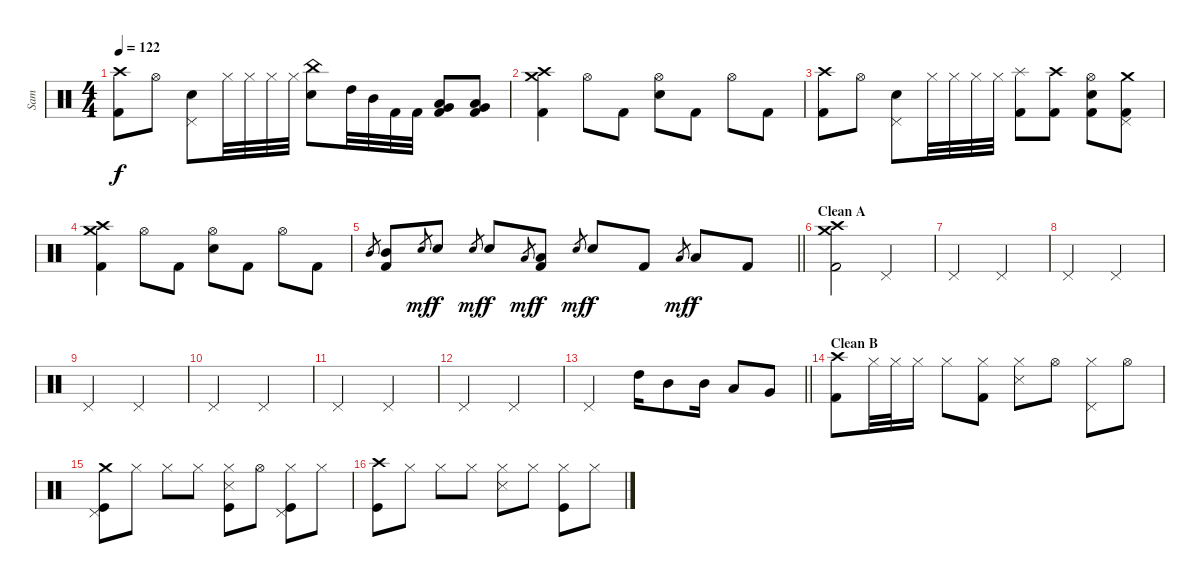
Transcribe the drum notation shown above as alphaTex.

\track ("Sam" "Sam") {solo instrument percussion}
\staff {score}
\articulation defaults
\ts (4 4)
\tempo 122
\clef neutral
\ks c
("Crash high (hit)" "Kick (hit) 2").8{dy f} "Hi-Hat (open)".8 ("Electric Snare (hit)" "Pedal Hi-Hat (hit)").8 "Hi-Hat (closed)".32 "Hi-Hat (closed)".32 "Hi-Hat (closed)".32 "Hi-Hat (closed)".32 ("China (hit)" "Electric Snare (hit)").8 "High Tom (hit)".32 "Mid Tom (hit)".32 "Kick (hit) 2".32 "Kick (hit) 2".32 ("Very Low Tom (hit)" "Low Floor Tom (hit)" "Kick (hit) 2").8 ("Very Low Tom (hit)" "Low Floor Tom (hit)" "Kick (hit) 2").8 |
("Crash medium (hit)" "Crash high (hit)" "Kick (hit) 2").4 "Hi-Hat (open)".8 "Kick (hit) 2".8 ("Hi-Hat (open)" "Electric Snare (hit)").8 "Kick (hit) 2".8 "Hi-Hat (open)".8 "Kick (hit) 2".8 |
("Crash high (hit)" "Kick (hit) 2").8 "Hi-Hat (open)".8 ("Electric Snare (hit)" "Pedal Hi-Hat (hit)").8 "Hi-Hat (closed)".32 "Hi-Hat (closed)".32 "Hi-Hat (closed)".32 "Hi-Hat (closed)".32 ("Splash (hit)" "Kick (hit) 2").8 ("Crash high (hit)" "Kick (hit) 2").8 ("Hi-Hat (open)" "Electric Snare (hit)" "Kick (hit) 2").8 ("Crash medium (hit)" "Pedal Hi-Hat (hit)" "Kick (hit) 2").8 |
("Crash medium (hit)" "Crash high (hit)" "Kick (hit) 2").4 "Hi-Hat (open)".8 "Kick (hit) 2".8 ("Hi-Hat (open)" "Electric Snare (hit)").8 "Kick (hit) 2".8 "Hi-Hat (open)".8 "Kick (hit) 2".8 |
\barLineRight lightlight "Mid Tom (hit)".8{gr}
("Mid Tom (hit)" "Kick (hit) 2").8 "Electric Snare (hit)".8{gr dy mf} "Electric Snare (hit)".8{dy f} "Electric Snare (hit)".8{gr dy mf} "Electric Snare (hit)".8{dy f} "Low Tom (hit)".8{gr dy mf} ("Low Tom (hit)" "Kick (hit) 2").8{dy f} "Electric Snare (hit)".8{gr dy mf} "Electric Snare (hit)".8{dy f} "Kick (hit) 2".8 "Low Tom (hit)".8{gr dy mf} "Low Tom (hit)".8{dy f} "Kick (hit) 2".8 |
\section ("" "Clean A")
("Crash high (hit)" "Crash medium (hit)" "Kick (hit) 2").2 "Pedal Hi-Hat (hit)".2 |
"Pedal Hi-Hat (hit)".2 "Pedal Hi-Hat (hit)".2 |
"Pedal Hi-Hat (hit)".2 "Pedal Hi-Hat (hit)".2 |
"Pedal Hi-Hat (hit)".2 "Pedal Hi-Hat (hit)".2 |
"Pedal Hi-Hat (hit)".2 "Pedal Hi-Hat (hit)".2 |
"Pedal Hi-Hat (hit)".2 "Pedal Hi-Hat (hit)".2 |
"Pedal Hi-Hat (hit)".2 "Pedal Hi-Hat (hit)".2 |
\barLineRight lightlight "Pedal Hi-Hat (hit)".2 "High Tom (hit)".16 "Mid Tom (hit)".8 "Mid Tom (hit)".16 "Low Tom (hit)".8 "Very Low Tom (hit)".8
|
\section ("" "Clean B")
("Crash high (hit)" "Kick (hit) 2").8 "Hi-Hat (closed)".32 "Hi-Hat (closed)".32 "Hi-Hat (closed)".16 "Hi-Hat (closed)".8 ("Hi-Hat (closed)" "Kick (hit) 2").8 ("Hi-Hat (closed)" "Snare (side stick) 3").8 "Hi-Hat (open)".8 ("Hi-Hat (closed)" "Pedal Hi-Hat (hit)").8 "Hi-Hat (open)".8 |
("Crash medium (hit)" "Pedal Hi-Hat (hit)" "Kick (hit)").8 "Hi-Hat (closed)".8 "Hi-Hat (closed)".8 "Hi-Hat (closed)".8 ("Hi-Hat (closed)" "Snare (side stick) 3" "Kick (hit)").8 "Hi-Hat (open)".8 ("Hi-Hat (closed)" "Pedal Hi-Hat (hit)" "Kick (hit)").8 "Hi-Hat (closed)".8 |
("Crash high (hit)" "Kick (hit)").8 "Hi-Hat (closed)".8 "Hi-Hat (closed)".8 "Hi-Hat (closed)".8 ("Hi-Hat (closed)" "Snare (side stick) 3").8 "Hi-Hat (closed)".8 ("Hi-Hat (closed)" "Kick (hit)").8 "Hi-Hat (closed)".8
